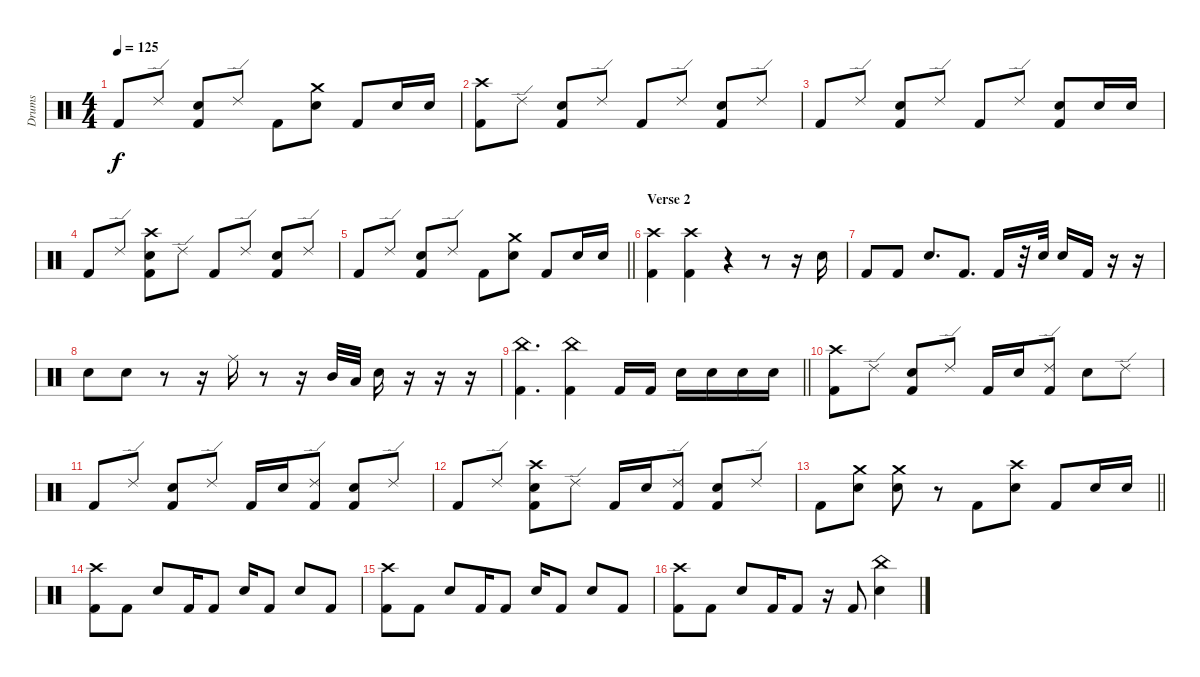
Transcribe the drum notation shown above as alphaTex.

\track ("Drums" "Drums") {instrument percussion}
\staff
\articulation defaults
\ts (4 4)
\tempo 125
\clef neutral
\ks c "Kick (hit) 2".8{dy f} "Ride (edge) 2".8
("Electric Snare (hit)" "Kick (hit) 2").8 "Ride (edge) 2".8 "Kick (hit) 2".8 ("Crash medium (hit)" "Electric Snare (hit)").8 "Kick (hit) 2".8 "Electric Snare (hit)".16 "Electric Snare (hit)".16 |
("Crash high (hit)" "Kick (hit) 2").8 "Ride (edge) 2".8 ("Electric Snare (hit)" "Kick (hit) 2").8 "Ride (edge) 2".8 "Kick (hit) 2".8 "Ride (edge) 2".8 ("Electric Snare (hit)" "Kick (hit) 2").8 "Ride (edge) 2".8 |
"Kick (hit) 2".8 "Ride (edge) 2".8 ("Electric Snare (hit)" "Kick (hit) 2").8 "Ride (edge) 2".8 "Kick (hit) 2".8 "Ride (edge) 2".8 ("Electric Snare (hit)" "Kick (hit) 2").8 "Electric Snare (hit)".16 "Electric Snare (hit)".16 |
"Kick (hit) 2".8 "Ride (edge) 2".8 ("Crash high (hit)" "Electric Snare (hit)" "Kick (hit) 2").8 "Ride (edge) 2".8 "Kick (hit) 2".8 "Ride (edge) 2".8 ("Electric Snare (hit)" "Kick (hit) 2").8 "Ride (edge) 2".8 |
\barLineRight lightlight "Kick (hit) 2".8 "Ride (edge) 2".8
("Electric Snare (hit)" "Kick (hit) 2").8 "Ride (edge) 2".8 "Kick (hit) 2".8 ("Crash medium (hit)" "Electric Snare (hit)").8 "Kick (hit) 2".8 "Electric Snare (hit)".16 "Electric Snare (hit)".16 |
\section ("" "Verse 2")
("Crash high (hit)" "Kick (hit) 2").4 ("Crash high (hit)" "Kick (hit) 2").4 r.4 r.8 r.16 "Electric Snare (hit)".16 |
"Kick (hit) 2".8 "Kick (hit) 2".8 "Electric Snare (hit)".8{d} "Kick (hit) 2".8{d} "Kick (hit) 2".16 r.32 "Electric Snare (hit)".32 "Electric Snare (hit)".16 "Kick (hit) 2".16 r.16 r.16 |
"Electric Snare (hit)".8 "Electric Snare (hit)".8 r.8 r.16 "Ride (middle)".16 r.8 r.16 "Mid Tom (hit)".32 "Low Tom (hit)".32 "Electric Snare (hit)".16 r.16 r.16 r.16 |
\barLineRight lightlight
("China (hit)" "Kick (hit) 2").4{d} ("China (hit)" "Kick (hit) 2").4 "Kick (hit) 2".16 "Kick (hit) 2".16 "Electric Snare (hit)".16 "Electric Snare (hit)".16 "Electric Snare (hit)".16 "Electric Snare (hit)".16 |
\section ("" "")
("Crash high (hit)" "Kick (hit) 2").8 "Ride (edge) 2".8 ("Electric Snare (hit)" "Kick (hit) 2").8 "Ride (edge) 2".8 "Kick (hit) 2".16 "Electric Snare (hit)".16 ("Ride (edge) 2" "Kick (hit) 2").8 "Electric Snare (hit)".8 "Ride (edge) 2".8 |
"Kick (hit) 2".8 "Ride (edge) 2".8 ("Electric Snare (hit)" "Kick (hit) 2").8 "Ride (edge) 2".8 "Kick (hit) 2".16 "Electric Snare (hit)".16 ("Ride (edge) 2" "Kick (hit) 2").8 ("Electric Snare (hit)" "Kick (hit) 2").8 "Ride (edge) 2".8 |
"Kick (hit) 2".8 "Ride (edge) 2".8 ("Crash high (hit)" "Electric Snare (hit)" "Kick (hit) 2").8 "Ride (edge) 2".8 "Kick (hit) 2".16 "Electric Snare (hit)".16 ("Ride (edge) 2" "Kick (hit) 2").8 ("Electric Snare (hit)" "Kick (hit) 2").8 "Ride (edge) 2".8 |
\barLineRight lightlight "Kick (hit) 2".8
("Crash medium (hit)" "Electric Snare (hit)").8 ("Crash medium (hit)" "Electric Snare (hit)").8 r.8 "Kick (hit) 2".8 ("Crash high (hit)" "Electric Snare (hit)").8 "Kick (hit) 2".8 "Electric Snare (hit)".16 "Electric Snare (hit)".16 |
("Crash high (hit)" "Kick (hit) 2").8 "Kick (hit) 2".8 "Electric Snare (hit)".8 "Kick (hit) 2".16 "Kick (hit) 2".8 "Electric Snare (hit)".16 "Kick (hit) 2".8 "Electric Snare (hit)".8 "Kick (hit) 2".8 |
("Crash high (hit)" "Kick (hit) 2").8 "Kick (hit) 2".8 "Electric Snare (hit)".8 "Kick (hit) 2".16 "Kick (hit) 2".8 "Electric Snare (hit)".16 "Kick (hit) 2".8 "Electric Snare (hit)".8 "Kick (hit) 2".8 |
("Crash high (hit)" "Kick (hit) 2").8 "Kick (hit) 2".8 "Electric Snare (hit)".8 "Kick (hit) 2".16 "Kick (hit) 2".8 r.16 "Kick (hit) 2".8 ("China (hit)" "Electric Snare (hit)").4
